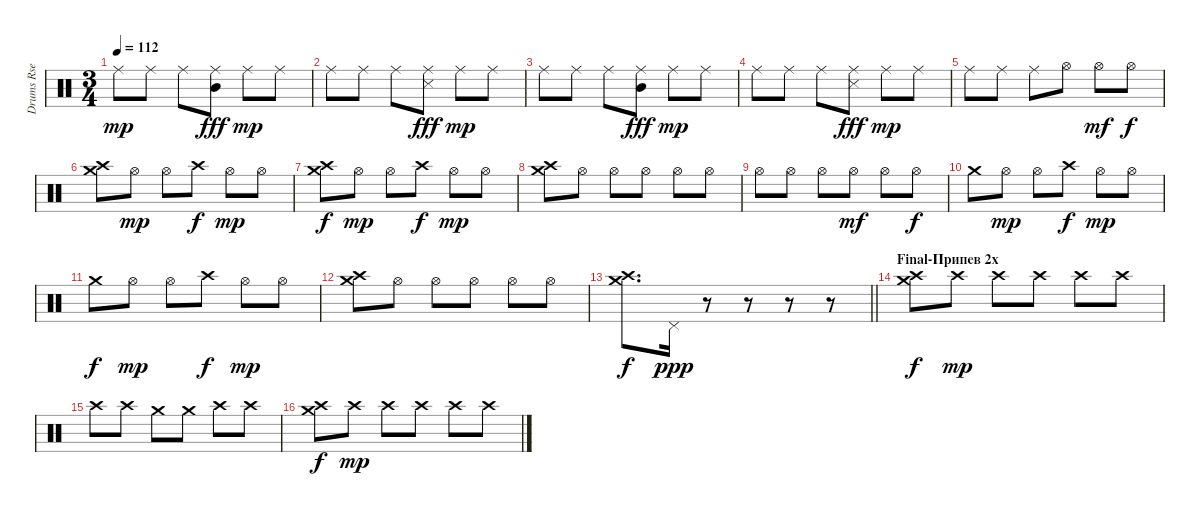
\track ("Drums Rse" "Drums Rse") {instrument percussion}
\staff {score}
\articulation defaults
\ts (3 4)
\tempo 112
\clef neutral
\ks c "Ride (middle)".8{dy mp} "Ride (middle)".8 "Ride (middle)".8
("Ride (middle)" "Mid Tom (hit)").8{dy fff} "Ride (middle)".8{dy mp} "Ride (middle)".8 |
"Ride (middle)".8 "Ride (middle)".8 "Ride (middle)".8 ("Ride (middle)" "Metronome (hit)").8{dy fff} "Ride (middle)".8{dy mp} "Ride (middle)".8 |
"Ride (middle)".8 "Ride (middle)".8 "Ride (middle)".8 ("Ride (middle)" "Mid Tom (hit)").8{dy fff} "Ride (middle)".8{dy mp} "Ride (middle)".8 |
"Ride (middle)".8 "Ride (middle)".8 "Ride (middle)".8 ("Ride (middle)" "Metronome (hit)").8{dy fff} "Ride (middle)".8{dy mp} "Ride (middle)".8 |
"Ride (middle)".8 "Ride (middle)".8 "Ride (middle)".8 "Hi-Hat (open)".8 "Hi-Hat (open)".8{dy mf} "Hi-Hat (open)".8{dy f} |
("Crash medium (hit)" "Crash high (hit)").8 "Hi-Hat (open)".8{dy mp} "Hi-Hat (open)".8 "Crash high (hit)".8{dy f} "Hi-Hat (open)".8{dy mp} "Hi-Hat (open)".8 |
("Crash medium (hit)" "Crash high (hit)").8{dy f} "Hi-Hat (open)".8{dy mp} "Hi-Hat (open)".8 "Crash high (hit)".8{dy f} "Hi-Hat (open)".8{dy mp} "Hi-Hat (open)".8 |
("Crash medium (hit)" "Crash high (hit)").8 "Hi-Hat (open)".8 "Hi-Hat (open)".8 "Hi-Hat (open)".8 "Hi-Hat (open)".8 "Hi-Hat (open)".8 |
"Hi-Hat (open)".8 "Hi-Hat (open)".8 "Hi-Hat (open)".8 "Hi-Hat (open)".8{dy mf} "Hi-Hat (open)".8 "Hi-Hat (open)".8{dy f} |
"Crash medium (hit)".8 "Hi-Hat (open)".8{dy mp} "Hi-Hat (open)".8 "Crash high (hit)".8{dy f} "Hi-Hat (open)".8{dy mp} "Hi-Hat (open)".8 |
"Crash medium (hit)".8{dy f} "Hi-Hat (open)".8{dy mp} "Hi-Hat (open)".8 "Crash high (hit)".8{dy f} "Hi-Hat (open)".8{dy mp} "Hi-Hat (open)".8 |
("Crash medium (hit)" "Crash high (hit)").8 "Hi-Hat (open)".8 "Hi-Hat (open)".8 "Hi-Hat (open)".8 "Hi-Hat (open)".8 "Hi-Hat (open)".8 |
\barLineRight lightlight
("Crash medium (hit)" "Crash high (hit)").8{d dy f} "Pedal Hi-Hat (hit)".16{dy ppp} r.8 r.8 r.8 r.8 |
\section ("" "Final-Припев 2х")
("Crash medium (hit)" "Crash high (hit)").8{dy f} "Crash high (hit)".8{dy mp} "Crash high (hit)".8 "Crash high (hit)".8 "Crash high (hit)".8 "Crash high (hit)".8 |
"Crash high (hit)".8 "Crash high (hit)".8 "Crash medium (hit)".8 "Crash medium (hit)".8 "Crash high (hit)".8 "Crash high (hit)".8 |
("Crash medium (hit)" "Crash high (hit)").8{dy f} "Crash high (hit)".8{dy mp} "Crash high (hit)".8 "Crash high (hit)".8 "Crash high (hit)".8 "Crash high (hit)".8
